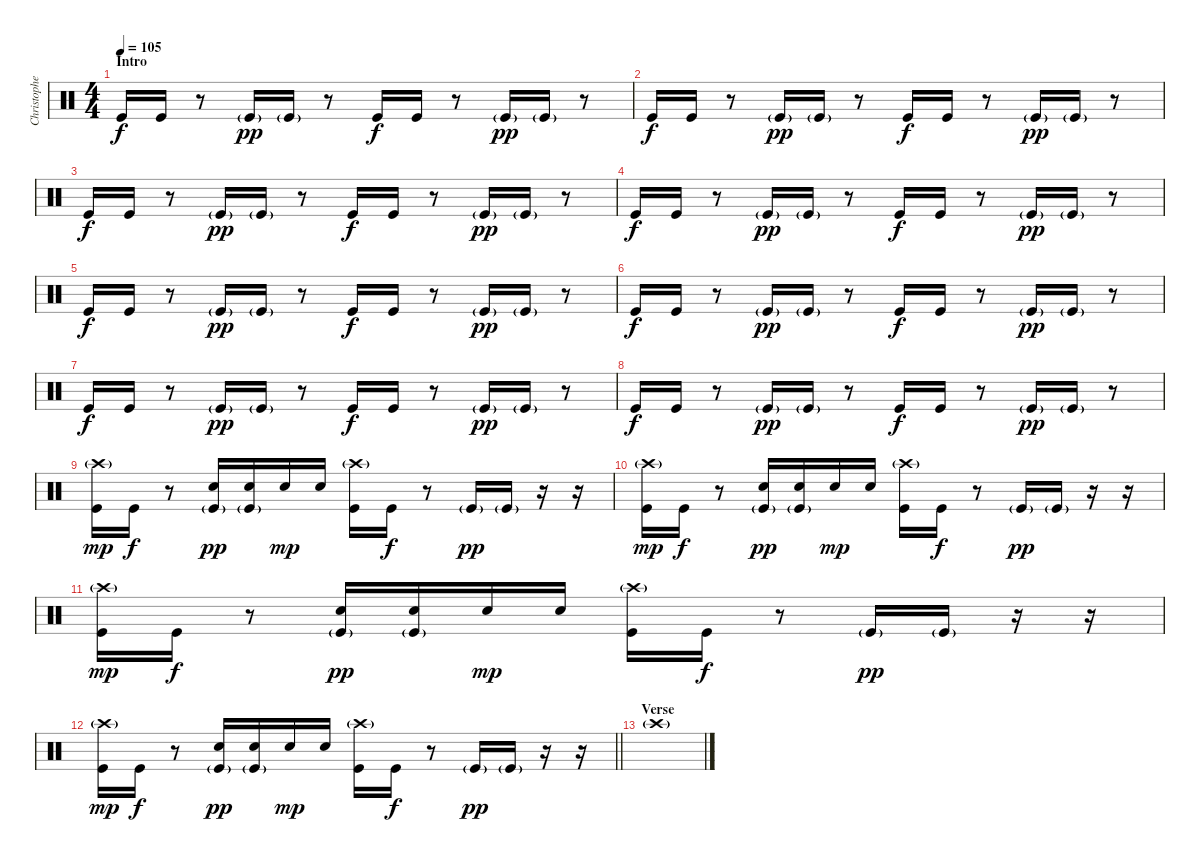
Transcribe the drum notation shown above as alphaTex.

\track ("Christopher - Drums" "Christophe") {mute instrument percussion}
\staff {score}
\articulation defaults
\ts (4 4)
\section ("" "Intro")
\tempo 105
\clef neutral
\ks c "Kick (hit)".16{dy f} "Kick (hit)".16
r.8 "Kick (hit)"{g}.16{dy pp} "Kick (hit)"{g}.16 r.8 "Kick (hit)".16{dy f} "Kick (hit)".16 r.8 "Kick (hit)"{g}.16{dy pp} "Kick (hit)"{g}.16 r.8 |
"Kick (hit)".16{dy f} "Kick (hit)".16 r.8 "Kick (hit)"{g}.16{dy pp} "Kick (hit)"{g}.16 r.8 "Kick (hit)".16{dy f} "Kick (hit)".16 r.8 "Kick (hit)"{g}.16{dy pp} "Kick (hit)"{g}.16 r.8 |
"Kick (hit)".16{dy f} "Kick (hit)".16 r.8 "Kick (hit)"{g}.16{dy pp} "Kick (hit)"{g}.16 r.8 "Kick (hit)".16{dy f} "Kick (hit)".16 r.8 "Kick (hit)"{g}.16{dy pp} "Kick (hit)"{g}.16 r.8 |
"Kick (hit)".16{dy f} "Kick (hit)".16 r.8 "Kick (hit)"{g}.16{dy pp} "Kick (hit)"{g}.16 r.8 "Kick (hit)".16{dy f} "Kick (hit)".16 r.8 "Kick (hit)"{g}.16{dy pp} "Kick (hit)"{g}.16 r.8 |
"Kick (hit)".16{dy f} "Kick (hit)".16 r.8 "Kick (hit)"{g}.16{dy pp} "Kick (hit)"{g}.16 r.8 "Kick (hit)".16{dy f} "Kick (hit)".16 r.8 "Kick (hit)"{g}.16{dy pp} "Kick (hit)"{g}.16 r.8 |
"Kick (hit)".16{dy f} "Kick (hit)".16 r.8 "Kick (hit)"{g}.16{dy pp} "Kick (hit)"{g}.16 r.8 "Kick (hit)".16{dy f} "Kick (hit)".16 r.8 "Kick (hit)"{g}.16{dy pp} "Kick (hit)"{g}.16 r.8 |
"Kick (hit)".16{dy f} "Kick (hit)".16 r.8 "Kick (hit)"{g}.16{dy pp} "Kick (hit)"{g}.16 r.8 "Kick (hit)".16{dy f} "Kick (hit)".16 r.8 "Kick (hit)"{g}.16{dy pp} "Kick (hit)"{g}.16 r.8 |
"Kick (hit)".16{dy f} "Kick (hit)".16 r.8 "Kick (hit)"{g}.16{dy pp} "Kick (hit)"{g}.16 r.8 "Kick (hit)".16{dy f} "Kick (hit)".16 r.8 "Kick (hit)"{g}.16{dy pp} "Kick (hit)"{g}.16 r.8 |
("Crash high (hit)"{g} "Kick (hit)").16{dy mp} "Kick (hit)".16{dy f} r.8 ("Snare (hit) 2" "Kick (hit)"{g}).16{dy pp} ("Snare (hit) 2" "Kick (hit)"{g}).16 "Snare (hit) 2".16{dy mp} "Snare (hit) 2".16 ("Crash high (hit)"{g} "Kick (hit)").16 "Kick (hit)".16{dy f} r.8 "Kick (hit)"{g}.16{dy pp} "Kick (hit)"{g}.16 r.16 r.16 |
("Crash high (hit)"{g} "Kick (hit)").16{dy mp} "Kick (hit)".16{dy f} r.8 ("Snare (hit) 2" "Kick (hit)"{g}).16{dy pp} ("Snare (hit) 2" "Kick (hit)"{g}).16 "Snare (hit) 2".16{dy mp} "Snare (hit) 2".16 ("Crash high (hit)"{g} "Kick (hit)").16 "Kick (hit)".16{dy f} r.8 "Kick (hit)"{g}.16{dy pp} "Kick (hit)"{g}.16 r.16 r.16 |
("Crash high (hit)"{g} "Kick (hit)").16{dy mp} "Kick (hit)".16{dy f} r.8 ("Snare (hit) 2" "Kick (hit)"{g}).16{dy pp} ("Snare (hit) 2" "Kick (hit)"{g}).16 "Snare (hit) 2".16{dy mp} "Snare (hit) 2".16 ("Crash high (hit)"{g} "Kick (hit)").16 "Kick (hit)".16{dy f} r.8 "Kick (hit)"{g}.16{dy pp} "Kick (hit)"{g}.16 r.16 r.16 |
\barLineRight lightlight
("Crash high (hit)"{g} "Kick (hit)").16{dy mp} "Kick (hit)".16{dy f} r.8 ("Snare (hit) 2" "Kick (hit)"{g}).16{dy pp} ("Snare (hit) 2" "Kick (hit)"{g}).16 "Snare (hit) 2".16{dy mp} "Snare (hit) 2".16 ("Crash high (hit)"{g} "Kick (hit)").16 "Kick (hit)".16{dy f} r.8 "Kick (hit)"{g}.16{dy pp} "Kick (hit)"{g}.16 r.16 r.16 |
\section ("" "Verse")
"Crash high (hit)"{g}.1
